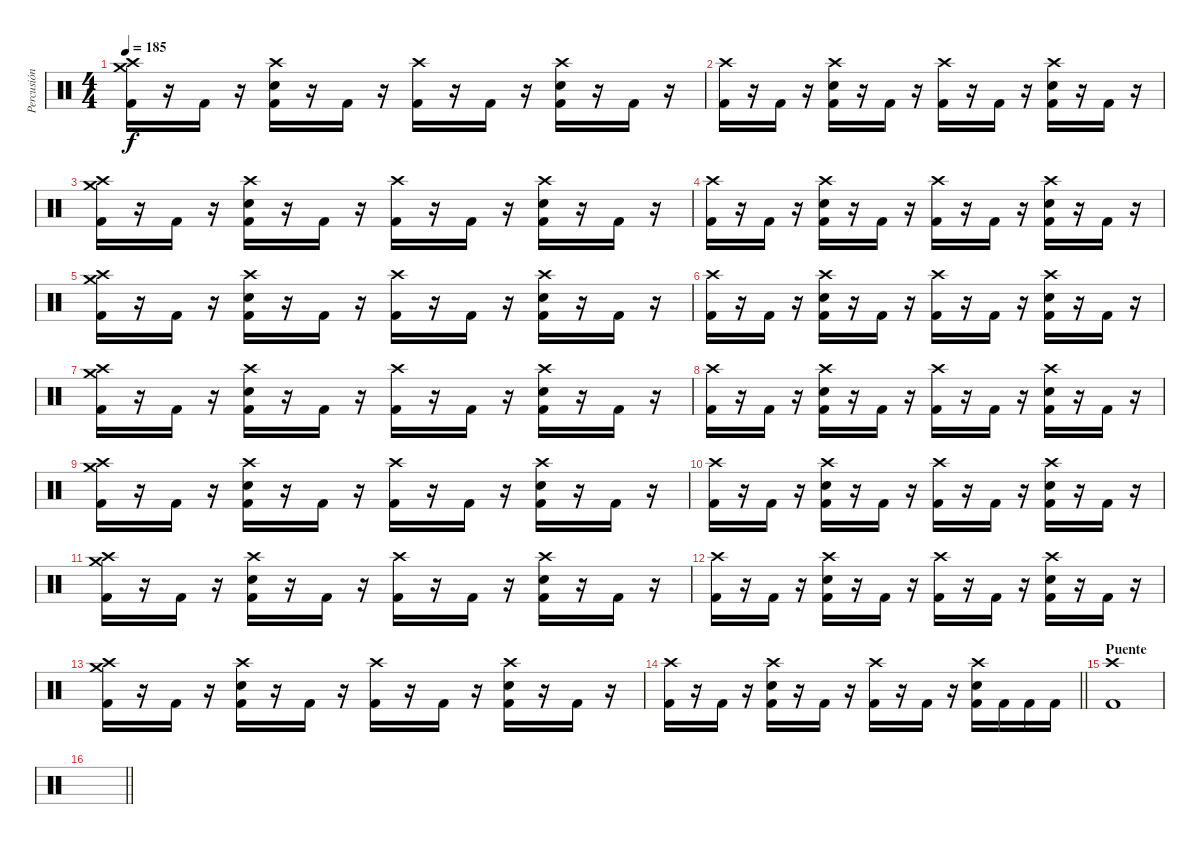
\track ("Percusión" "Percusión") {instrument percussion}
\staff {score}
\articulation defaults
\ts (4 4)
\tempo 185
\clef neutral
\ks c
("Crash high (hit)" "Crash medium (hit)" "Kick (hit) 2").16{dy f} r.16 "Kick (hit) 2".16 r.16 ("Crash high (hit)" "Electric Snare (hit)" "Kick (hit) 2").16 r.16 "Kick (hit) 2".16 r.16 ("Crash high (hit)" "Kick (hit) 2").16 r.16 "Kick (hit) 2".16 r.16 ("Crash high (hit)" "Electric Snare (hit)" "Kick (hit) 2").16 r.16 "Kick (hit) 2".16 r.16 |
("Crash high (hit)" "Kick (hit) 2").16 r.16 "Kick (hit) 2".16 r.16 ("Crash high (hit)" "Electric Snare (hit)" "Kick (hit) 2").16 r.16 "Kick (hit) 2".16 r.16 ("Crash high (hit)" "Kick (hit) 2").16 r.16 "Kick (hit) 2".16 r.16 ("Crash high (hit)" "Electric Snare (hit)" "Kick (hit) 2").16 r.16 "Kick (hit) 2".16 r.16 |
("Crash high (hit)" "Crash medium (hit)" "Kick (hit) 2").16 r.16 "Kick (hit) 2".16 r.16 ("Crash high (hit)" "Electric Snare (hit)" "Kick (hit) 2").16 r.16 "Kick (hit) 2".16 r.16 ("Crash high (hit)" "Kick (hit) 2").16 r.16 "Kick (hit) 2".16 r.16 ("Crash high (hit)" "Electric Snare (hit)" "Kick (hit) 2").16 r.16 "Kick (hit) 2".16 r.16 |
("Crash high (hit)" "Kick (hit) 2").16 r.16 "Kick (hit) 2".16 r.16 ("Crash high (hit)" "Electric Snare (hit)" "Kick (hit) 2").16 r.16 "Kick (hit) 2".16 r.16 ("Crash high (hit)" "Kick (hit) 2").16 r.16 "Kick (hit) 2".16 r.16 ("Crash high (hit)" "Electric Snare (hit)" "Kick (hit) 2").16 r.16 "Kick (hit) 2".16 r.16 |
("Crash high (hit)" "Crash medium (hit)" "Kick (hit) 2").16 r.16 "Kick (hit) 2".16 r.16 ("Crash high (hit)" "Electric Snare (hit)" "Kick (hit) 2").16 r.16 "Kick (hit) 2".16 r.16 ("Crash high (hit)" "Kick (hit) 2").16 r.16 "Kick (hit) 2".16 r.16 ("Crash high (hit)" "Electric Snare (hit)" "Kick (hit) 2").16 r.16 "Kick (hit) 2".16 r.16 |
("Crash high (hit)" "Kick (hit) 2").16 r.16 "Kick (hit) 2".16 r.16 ("Crash high (hit)" "Electric Snare (hit)" "Kick (hit) 2").16 r.16 "Kick (hit) 2".16 r.16 ("Crash high (hit)" "Kick (hit) 2").16 r.16 "Kick (hit) 2".16 r.16 ("Crash high (hit)" "Electric Snare (hit)" "Kick (hit) 2").16 r.16 "Kick (hit) 2".16 r.16 |
("Crash high (hit)" "Crash medium (hit)" "Kick (hit) 2").16 r.16 "Kick (hit) 2".16 r.16 ("Crash high (hit)" "Electric Snare (hit)" "Kick (hit) 2").16 r.16 "Kick (hit) 2".16 r.16 ("Crash high (hit)" "Kick (hit) 2").16 r.16 "Kick (hit) 2".16 r.16 ("Crash high (hit)" "Electric Snare (hit)" "Kick (hit) 2").16 r.16 "Kick (hit) 2".16 r.16 |
("Crash high (hit)" "Kick (hit) 2").16 r.16 "Kick (hit) 2".16 r.16 ("Crash high (hit)" "Electric Snare (hit)" "Kick (hit) 2").16 r.16 "Kick (hit) 2".16 r.16 ("Crash high (hit)" "Kick (hit) 2").16 r.16 "Kick (hit) 2".16 r.16 ("Crash high (hit)" "Electric Snare (hit)" "Kick (hit) 2").16 r.16 "Kick (hit) 2".16 r.16 |
("Crash high (hit)" "Crash medium (hit)" "Kick (hit) 2").16 r.16 "Kick (hit) 2".16 r.16 ("Crash high (hit)" "Electric Snare (hit)" "Kick (hit) 2").16 r.16 "Kick (hit) 2".16 r.16 ("Crash high (hit)" "Kick (hit) 2").16 r.16 "Kick (hit) 2".16 r.16 ("Crash high (hit)" "Electric Snare (hit)" "Kick (hit) 2").16 r.16 "Kick (hit) 2".16 r.16 |
("Crash high (hit)" "Kick (hit) 2").16 r.16 "Kick (hit) 2".16 r.16 ("Crash high (hit)" "Electric Snare (hit)" "Kick (hit) 2").16 r.16 "Kick (hit) 2".16 r.16 ("Crash high (hit)" "Kick (hit) 2").16 r.16 "Kick (hit) 2".16 r.16 ("Crash high (hit)" "Electric Snare (hit)" "Kick (hit) 2").16 r.16 "Kick (hit) 2".16 r.16 |
("Crash high (hit)" "Crash medium (hit)" "Kick (hit) 2").16 r.16 "Kick (hit) 2".16 r.16 ("Crash high (hit)" "Electric Snare (hit)" "Kick (hit) 2").16 r.16 "Kick (hit) 2".16 r.16 ("Crash high (hit)" "Kick (hit) 2").16 r.16 "Kick (hit) 2".16 r.16 ("Crash high (hit)" "Electric Snare (hit)" "Kick (hit) 2").16 r.16 "Kick (hit) 2".16 r.16 |
("Crash high (hit)" "Kick (hit) 2").16 r.16 "Kick (hit) 2".16 r.16 ("Crash high (hit)" "Electric Snare (hit)" "Kick (hit) 2").16 r.16 "Kick (hit) 2".16 r.16 ("Crash high (hit)" "Kick (hit) 2").16 r.16 "Kick (hit) 2".16 r.16 ("Crash high (hit)" "Electric Snare (hit)" "Kick (hit) 2").16 r.16 "Kick (hit) 2".16 r.16 |
("Crash high (hit)" "Crash medium (hit)" "Kick (hit) 2").16 r.16 "Kick (hit) 2".16 r.16 ("Crash high (hit)" "Electric Snare (hit)" "Kick (hit) 2").16 r.16 "Kick (hit) 2".16 r.16 ("Crash high (hit)" "Kick (hit) 2").16 r.16 "Kick (hit) 2".16 r.16 ("Crash high (hit)" "Electric Snare (hit)" "Kick (hit) 2").16 r.16 "Kick (hit) 2".16 r.16 |
\barLineRight lightlight
("Crash high (hit)" "Kick (hit) 2").16 r.16 "Kick (hit) 2".16 r.16 ("Crash high (hit)" "Electric Snare (hit)" "Kick (hit) 2").16 r.16 "Kick (hit) 2".16 r.16 ("Crash high (hit)" "Kick (hit) 2").16 r.16 "Kick (hit) 2".16 r.16 ("Crash high (hit)" "Electric Snare (hit)" "Kick (hit) 2").16 "Kick (hit) 2".16 "Kick (hit) 2".16 "Kick (hit) 2".16 |
\section ("" "Puente")
("Crash high (hit)" "Kick (hit) 2").1 |
\barLineRight lightlight
